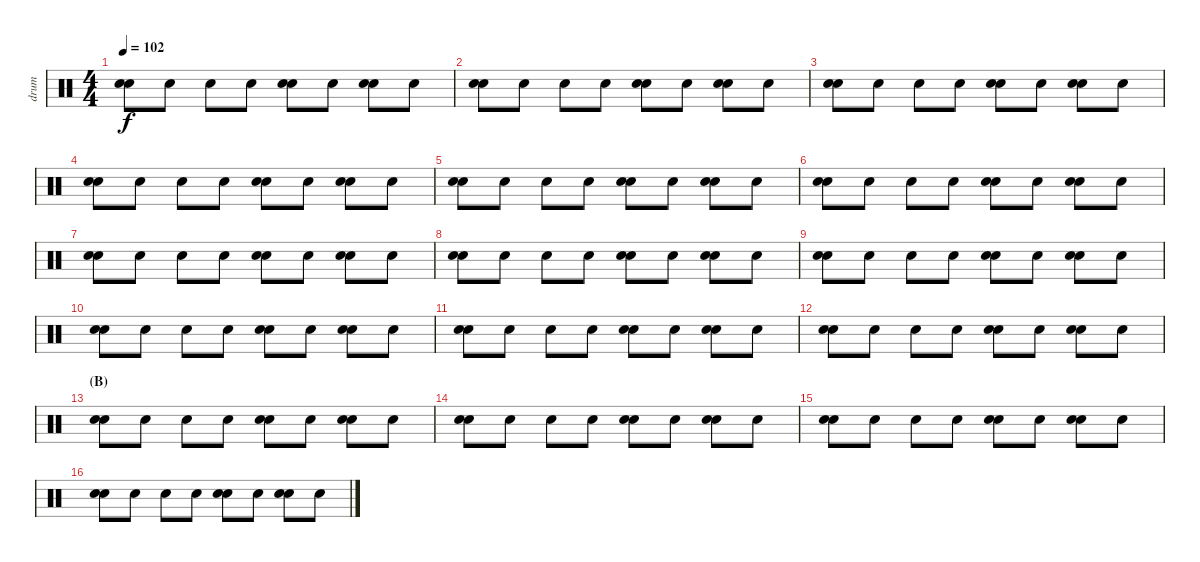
\track ("drum" "drum") {instrument percussion}
\staff {score}
\articulation defaults
\ts (4 4)
\tempo 102
\clef neutral
\ks c
("Snare (hit) 2" "Electric Snare (hit)").8{dy f} "Electric Snare (hit)".8 "Electric Snare (hit)".8 "Electric Snare (hit)".8 ("Snare (hit) 2" "Electric Snare (hit)").8 "Electric Snare (hit)".8 ("Snare (hit) 2" "Electric Snare (hit)").8 "Electric Snare (hit)".8 |
("Snare (hit) 2" "Electric Snare (hit)").8 "Electric Snare (hit)".8 "Electric Snare (hit)".8 "Electric Snare (hit)".8 ("Snare (hit) 2" "Electric Snare (hit)").8 "Electric Snare (hit)".8 ("Snare (hit) 2" "Electric Snare (hit)").8 "Electric Snare (hit)".8 |
("Snare (hit) 2" "Electric Snare (hit)").8 "Electric Snare (hit)".8 "Electric Snare (hit)".8 "Electric Snare (hit)".8 ("Snare (hit) 2" "Electric Snare (hit)").8 "Electric Snare (hit)".8 ("Snare (hit) 2" "Electric Snare (hit)").8 "Electric Snare (hit)".8 |
("Snare (hit) 2" "Electric Snare (hit)").8 "Electric Snare (hit)".8 "Electric Snare (hit)".8 "Electric Snare (hit)".8 ("Snare (hit) 2" "Electric Snare (hit)").8 "Electric Snare (hit)".8 ("Snare (hit) 2" "Electric Snare (hit)").8 "Electric Snare (hit)".8 |
("Snare (hit) 2" "Electric Snare (hit)").8 "Electric Snare (hit)".8 "Electric Snare (hit)".8 "Electric Snare (hit)".8 ("Snare (hit) 2" "Electric Snare (hit)").8 "Electric Snare (hit)".8 ("Snare (hit) 2" "Electric Snare (hit)").8 "Electric Snare (hit)".8 |
("Snare (hit) 2" "Electric Snare (hit)").8 "Electric Snare (hit)".8 "Electric Snare (hit)".8 "Electric Snare (hit)".8 ("Snare (hit) 2" "Electric Snare (hit)").8 "Electric Snare (hit)".8 ("Snare (hit) 2" "Electric Snare (hit)").8 "Electric Snare (hit)".8 |
("Snare (hit) 2" "Electric Snare (hit)").8 "Electric Snare (hit)".8 "Electric Snare (hit)".8 "Electric Snare (hit)".8 ("Snare (hit) 2" "Electric Snare (hit)").8 "Electric Snare (hit)".8 ("Snare (hit) 2" "Electric Snare (hit)").8 "Electric Snare (hit)".8 |
("Snare (hit) 2" "Electric Snare (hit)").8 "Electric Snare (hit)".8 "Electric Snare (hit)".8 "Electric Snare (hit)".8 ("Snare (hit) 2" "Electric Snare (hit)").8 "Electric Snare (hit)".8 ("Snare (hit) 2" "Electric Snare (hit)").8 "Electric Snare (hit)".8 |
("Snare (hit) 2" "Electric Snare (hit)").8 "Electric Snare (hit)".8 "Electric Snare (hit)".8 "Electric Snare (hit)".8 ("Snare (hit) 2" "Electric Snare (hit)").8 "Electric Snare (hit)".8 ("Snare (hit) 2" "Electric Snare (hit)").8 "Electric Snare (hit)".8 |
("Snare (hit) 2" "Electric Snare (hit)").8 "Electric Snare (hit)".8 "Electric Snare (hit)".8 "Electric Snare (hit)".8 ("Snare (hit) 2" "Electric Snare (hit)").8 "Electric Snare (hit)".8 ("Snare (hit) 2" "Electric Snare (hit)").8 "Electric Snare (hit)".8 |
("Snare (hit) 2" "Electric Snare (hit)").8 "Electric Snare (hit)".8 "Electric Snare (hit)".8 "Electric Snare (hit)".8 ("Snare (hit) 2" "Electric Snare (hit)").8 "Electric Snare (hit)".8 ("Snare (hit) 2" "Electric Snare (hit)").8 "Electric Snare (hit)".8 |
("Snare (hit) 2" "Electric Snare (hit)").8 "Electric Snare (hit)".8 "Electric Snare (hit)".8 "Electric Snare (hit)".8 ("Snare (hit) 2" "Electric Snare (hit)").8 "Electric Snare (hit)".8 ("Snare (hit) 2" "Electric Snare (hit)").8 "Electric Snare (hit)".8 |
\section ("" "(B)")
("Snare (hit) 2" "Electric Snare (hit)").8 "Electric Snare (hit)".8 "Electric Snare (hit)".8 "Electric Snare (hit)".8 ("Snare (hit) 2" "Electric Snare (hit)").8 "Electric Snare (hit)".8 ("Snare (hit) 2" "Electric Snare (hit)").8 "Electric Snare (hit)".8 |
("Snare (hit) 2" "Electric Snare (hit)").8 "Electric Snare (hit)".8 "Electric Snare (hit)".8 "Electric Snare (hit)".8 ("Snare (hit) 2" "Electric Snare (hit)").8 "Electric Snare (hit)".8 ("Snare (hit) 2" "Electric Snare (hit)").8 "Electric Snare (hit)".8 |
("Snare (hit) 2" "Electric Snare (hit)").8 "Electric Snare (hit)".8 "Electric Snare (hit)".8 "Electric Snare (hit)".8 ("Snare (hit) 2" "Electric Snare (hit)").8 "Electric Snare (hit)".8 ("Snare (hit) 2" "Electric Snare (hit)").8 "Electric Snare (hit)".8 |
("Snare (hit) 2" "Electric Snare (hit)").8 "Electric Snare (hit)".8 "Electric Snare (hit)".8 "Electric Snare (hit)".8 ("Snare (hit) 2" "Electric Snare (hit)").8 "Electric Snare (hit)".8 ("Snare (hit) 2" "Electric Snare (hit)").8 "Electric Snare (hit)".8
